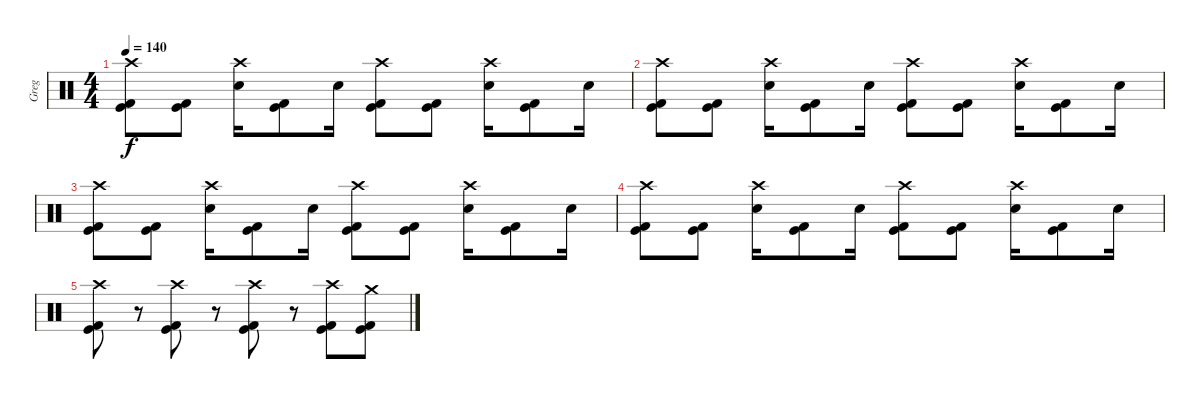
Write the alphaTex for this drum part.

\track ("Greg" "Greg") {instrument percussion}
\staff {score}
\articulation defaults
\ts (4 4)
\tempo 140
\clef neutral
\ks c
("Crash high (hit)" "Kick (hit)" "Kick (hit) 2").8{dy f} ("Kick (hit)" "Kick (hit) 2").8 ("Crash high (hit)" "Snare (hit) 2").16 ("Kick (hit)" "Kick (hit) 2").8 "Snare (hit) 2".16 ("Crash high (hit)" "Kick (hit)" "Kick (hit) 2").8 ("Kick (hit)" "Kick (hit) 2").8 ("Crash high (hit)" "Snare (hit) 2").16 ("Kick (hit)" "Kick (hit) 2").8 "Snare (hit) 2".16 |
("Crash high (hit)" "Kick (hit)" "Kick (hit) 2").8 ("Kick (hit)" "Kick (hit) 2").8 ("Crash high (hit)" "Snare (hit) 2").16 ("Kick (hit)" "Kick (hit) 2").8 "Snare (hit) 2".16 ("Crash high (hit)" "Kick (hit)" "Kick (hit) 2").8 ("Kick (hit)" "Kick (hit) 2").8 ("Crash high (hit)" "Snare (hit) 2").16 ("Kick (hit)" "Kick (hit) 2").8 "Snare (hit) 2".16 |
("Crash high (hit)" "Kick (hit)" "Kick (hit) 2").8 ("Kick (hit)" "Kick (hit) 2").8 ("Crash high (hit)" "Snare (hit) 2").16 ("Kick (hit)" "Kick (hit) 2").8 "Snare (hit) 2".16 ("Crash high (hit)" "Kick (hit)" "Kick (hit) 2").8 ("Kick (hit)" "Kick (hit) 2").8 ("Crash high (hit)" "Snare (hit) 2").16 ("Kick (hit)" "Kick (hit) 2").8 "Snare (hit) 2".16 |
("Crash high (hit)" "Kick (hit)" "Kick (hit) 2").8 ("Kick (hit)" "Kick (hit) 2").8 ("Crash high (hit)" "Snare (hit) 2").16 ("Kick (hit)" "Kick (hit) 2").8 "Snare (hit) 2".16 ("Crash high (hit)" "Kick (hit)" "Kick (hit) 2").8 ("Kick (hit)" "Kick (hit) 2").8 ("Crash high (hit)" "Snare (hit) 2").16 ("Kick (hit)" "Kick (hit) 2").8 "Snare (hit) 2".16 |
("Crash high (hit)" "Kick (hit)" "Kick (hit) 2").8 r.8 ("Crash high (hit)" "Kick (hit)" "Kick (hit) 2").8 r.8 ("Crash high (hit)" "Kick (hit)" "Kick (hit) 2").8 r.8 ("Crash high (hit)" "Kick (hit)" "Kick (hit) 2").8 ("Crash medium (hit)" "Kick (hit)" "Kick (hit) 2").8
